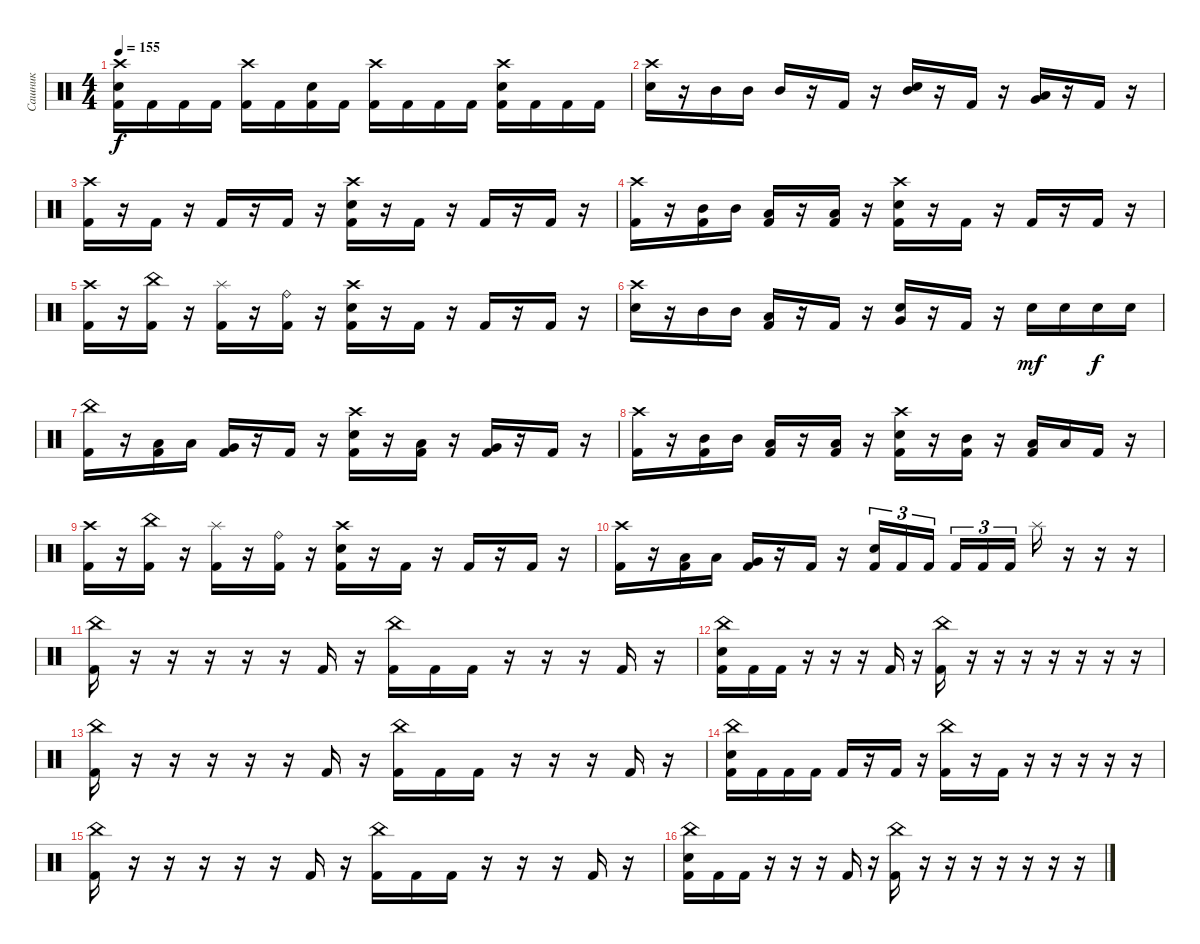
\track ("Сашник" "Сашник") {instrument percussion}
\staff {score}
\articulation defaults
\ts (4 4)
\tempo 155
\clef neutral
\ks c
("Crash high (hit)" "Electric Snare (hit)" "Kick (hit) 2").16{dy f} "Kick (hit) 2".16 "Kick (hit) 2".16 "Kick (hit) 2".16 ("Crash high (hit)" "Kick (hit) 2").16 "Kick (hit) 2".16 ("Electric Snare (hit)" "Kick (hit) 2").16 "Kick (hit) 2".16 ("Crash high (hit)" "Kick (hit) 2").16 "Kick (hit) 2".16 "Kick (hit) 2".16 "Kick (hit) 2".16 ("Crash high (hit)" "Electric Snare (hit)" "Kick (hit) 2").16 "Kick (hit) 2".16 "Kick (hit) 2".16 "Kick (hit) 2".16 |
("Crash high (hit)" "Electric Snare (hit)").16 r.16 "Mid Tom (hit)".16 "Mid Tom (hit)".16 "Mid Tom (hit)".16 r.16 "Kick (hit) 2".16 r.16 ("Electric Snare (hit)" "Mid Tom (hit)").16 r.16 "Kick (hit) 2".16 r.16 ("Low Tom (hit)" "Very Low Tom (hit)").16 r.16 "Kick (hit) 2".16 r.16 |
("Crash high (hit)" "Kick (hit) 2").16 r.16 "Kick (hit) 2".16 r.16 "Kick (hit) 2".16 r.16 "Kick (hit) 2".16 r.16 ("Crash high (hit)" "Electric Snare (hit)" "Kick (hit) 2").16 r.16 "Kick (hit) 2".16 r.16 "Kick (hit) 2".16 r.16 "Kick (hit) 2".16 r.16 |
("Crash high (hit)" "Kick (hit) 2").16 r.16 ("Mid Tom (hit)" "Kick (hit) 2").16 "Mid Tom (hit)".16 ("Low Tom (hit)" "Kick (hit) 2").16 r.16 ("Low Tom (hit)" "Kick (hit) 2").16 r.16 ("Crash high (hit)" "Electric Snare (hit)" "Kick (hit) 2").16 r.16 "Kick (hit) 2".16 r.16 "Kick (hit) 2".16 r.16 "Kick (hit) 2".16 r.16 |
("Crash high (hit)" "Kick (hit) 2").16 r.16 ("China (hit)" "Kick (hit) 2").16 r.16 ("Splash (hit)" "Kick (hit) 2").16 r.16 ("Ride (bell)" "Kick (hit) 2").16 r.16 ("Crash high (hit)" "Electric Snare (hit)" "Kick (hit) 2").16 r.16 "Kick (hit) 2".16 r.16 "Kick (hit) 2".16 r.16 "Kick (hit) 2".16 r.16 |
("Crash high (hit)" "Electric Snare (hit)").16 r.16 "Mid Tom (hit)".16 "Mid Tom (hit)".16 ("Low Tom (hit)" "Kick (hit) 2").16 r.16 "Kick (hit) 2".16 r.16 ("Electric Snare (hit)" "Very Low Tom (hit)").16 r.16 "Kick (hit) 2".16 r.16 "Electric Snare (hit)".16{dy mf} "Electric Snare (hit)".16 "Electric Snare (hit)".16{dy f} "Electric Snare (hit)".16 |
("China (hit)" "Kick (hit) 2").16 r.16 ("Low Tom (hit)" "Kick (hit) 2").16 "Low Tom (hit)".16 ("Very Low Tom (hit)" "Kick (hit) 2").16 r.16 "Kick (hit) 2".16 r.16 ("Crash high (hit)" "Electric Snare (hit)" "Kick (hit) 2").16 r.16 ("Low Tom (hit)" "Kick (hit) 2").16 r.16 ("Very Low Tom (hit)" "Kick (hit) 2").16 r.16 "Kick (hit) 2".16 r.16 |
("Crash high (hit)" "Kick (hit) 2").16 r.16 ("Mid Tom (hit)" "Kick (hit) 2").16 "Mid Tom (hit)".16 ("Low Tom (hit)" "Kick (hit) 2").16 r.16 ("Low Tom (hit)" "Kick (hit) 2").16 r.16 ("Crash high (hit)" "Electric Snare (hit)" "Kick (hit) 2").16 r.16 ("Mid Tom (hit)" "Kick (hit) 2").16 r.16 ("Low Tom (hit)" "Kick (hit) 2").16 "Low Tom (hit)".16 "Kick (hit) 2".16 r.16 |
("Crash high (hit)" "Kick (hit) 2").16 r.16 ("China (hit)" "Kick (hit) 2").16 r.16 ("Splash (hit)" "Kick (hit) 2").16 r.16 ("Ride (bell)" "Kick (hit) 2").16 r.16 ("Crash high (hit)" "Electric Snare (hit)" "Kick (hit) 2").16 r.16 "Kick (hit) 2".16 r.16 "Kick (hit) 2".16 r.16 "Kick (hit) 2".16 r.16 |
("Crash high (hit)" "Kick (hit) 2").16 r.16 ("Low Tom (hit)" "Kick (hit) 2").16 "Low Tom (hit)".16 ("Very Low Tom (hit)" "Kick (hit) 2").16 r.16 "Kick (hit) 2".16 r.16 ("Electric Snare (hit)" "Kick (hit) 2").16{tu (3 2)} "Kick (hit) 2".16{tu (3 2)} "Kick (hit) 2".16{tu (3 2) beam splitsecondary} "Kick (hit) 2".16{tu (3 2)} "Kick (hit) 2".16{tu (3 2)} "Kick (hit) 2".16{tu (3 2)} "Splash (hit)".16 r.16 r.16 r.16 |
("China (hit)" "Kick (hit) 2").16 r.16 r.16 r.16 r.16 r.16 "Kick (hit) 2".16 r.16 ("China (hit)" "Kick (hit) 2").16 "Kick (hit) 2".16 "Kick (hit) 2".16 r.16 r.16 r.16 "Kick (hit) 2".16 r.16 |
("China (hit)" "Electric Snare (hit)" "Kick (hit) 2").16 "Kick (hit) 2".16 "Kick (hit) 2".16 r.16 r.16 r.16 "Kick (hit) 2".16 r.16 ("China (hit)" "Kick (hit) 2").16 r.16 r.16 r.16 r.16 r.16 r.16 r.16 |
("China (hit)" "Kick (hit) 2").16 r.16 r.16 r.16 r.16 r.16 "Kick (hit) 2".16 r.16 ("China (hit)" "Kick (hit) 2").16 "Kick (hit) 2".16 "Kick (hit) 2".16 r.16 r.16 r.16 "Kick (hit) 2".16 r.16 |
("China (hit)" "Electric Snare (hit)" "Kick (hit) 2").16 "Kick (hit) 2".16 "Kick (hit) 2".16 "Kick (hit) 2".16 "Kick (hit) 2".16 r.16 "Kick (hit) 2".16 r.16 ("China (hit)" "Kick (hit) 2").16 r.16 "Kick (hit) 2".16 r.16 r.16 r.16 r.16 r.16 |
("China (hit)" "Kick (hit) 2").16 r.16 r.16 r.16 r.16 r.16 "Kick (hit) 2".16 r.16 ("China (hit)" "Kick (hit) 2").16 "Kick (hit) 2".16 "Kick (hit) 2".16 r.16 r.16 r.16 "Kick (hit) 2".16 r.16 |
("China (hit)" "Electric Snare (hit)" "Kick (hit) 2").16 "Kick (hit) 2".16 "Kick (hit) 2".16 r.16 r.16 r.16 "Kick (hit) 2".16 r.16 ("China (hit)" "Kick (hit) 2").16 r.16 r.16 r.16 r.16 r.16 r.16 r.16
